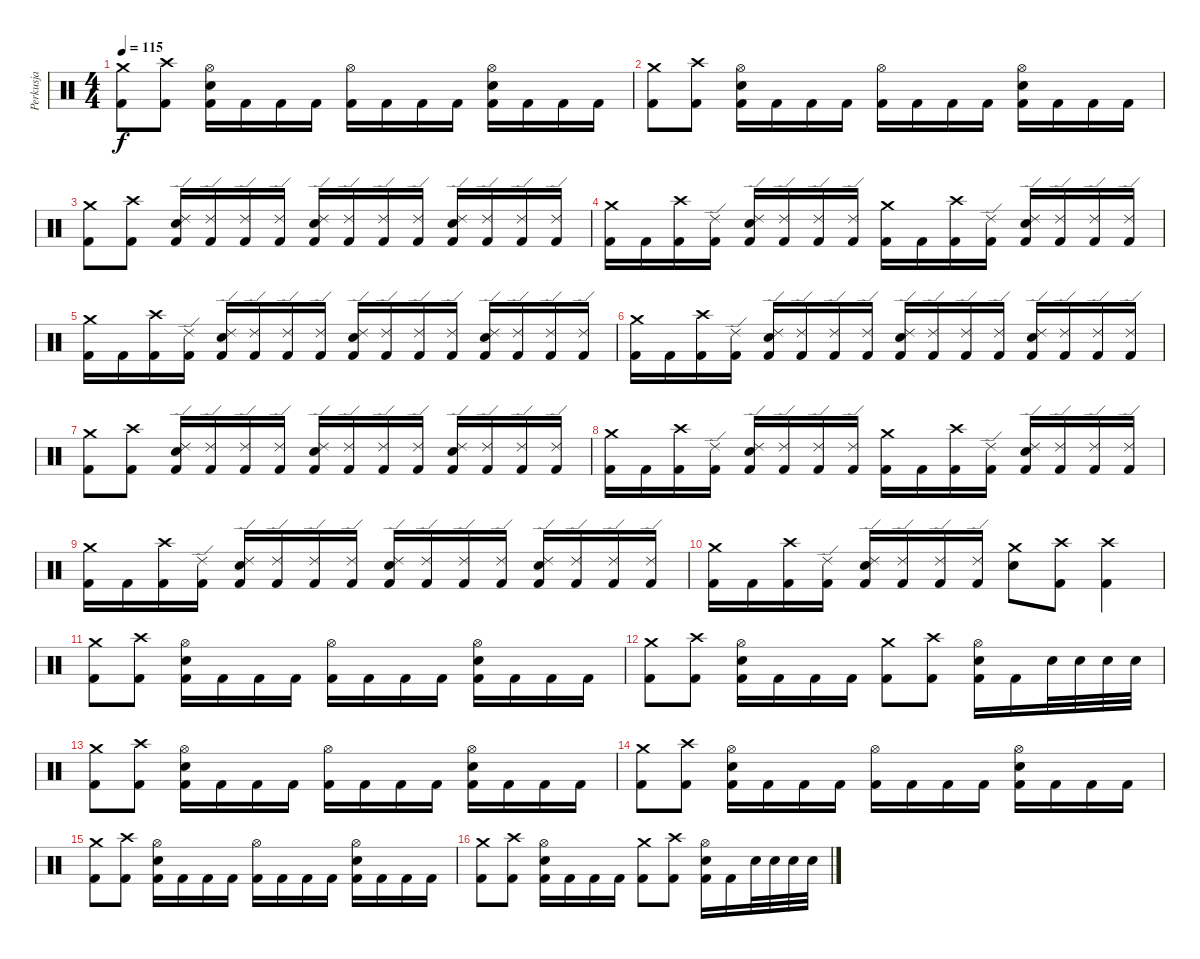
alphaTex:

\track ("Perkusja" "Perkusja") {instrument percussion}
\staff {score}
\articulation defaults
\ts (4 4)
\tempo 115
\clef neutral
\ks c
("Crash medium (hit)" "Kick (hit) 2").8{dy f} ("Crash high (hit)" "Kick (hit) 2").8 ("Kick (hit) 2" "Snare (hit) 2" "Hi-Hat (open)").16 "Kick (hit) 2".16 "Kick (hit) 2".16 "Kick (hit) 2".16 ("Kick (hit) 2" "Hi-Hat (open)").16 "Kick (hit) 2".16 "Kick (hit) 2".16 "Kick (hit) 2".16 ("Kick (hit) 2" "Snare (hit) 2" "Hi-Hat (open)").16 "Kick (hit) 2".16 "Kick (hit) 2".16 "Kick (hit) 2".16 |
("Crash medium (hit)" "Kick (hit) 2").8 ("Crash high (hit)" "Kick (hit) 2").8 ("Kick (hit) 2" "Snare (hit) 2" "Hi-Hat (open)").16 "Kick (hit) 2".16 "Kick (hit) 2".16 "Kick (hit) 2".16 ("Kick (hit) 2" "Hi-Hat (open)").16 "Kick (hit) 2".16 "Kick (hit) 2".16 "Kick (hit) 2".16 ("Kick (hit) 2" "Snare (hit) 2" "Hi-Hat (open)").16 "Kick (hit) 2".16 "Kick (hit) 2".16 "Kick (hit) 2".16 |
("Crash medium (hit)" "Kick (hit) 2").8 ("Crash high (hit)" "Kick (hit) 2").8 ("Kick (hit) 2" "Snare (hit) 2" "Ride (edge) 2").16 ("Kick (hit) 2" "Ride (edge) 2").16 ("Kick (hit) 2" "Ride (edge) 2").16 ("Kick (hit) 2" "Ride (edge) 2").16 ("Kick (hit) 2" "Ride (edge) 2" "Snare (hit) 2").16 ("Kick (hit) 2" "Ride (edge) 2").16 ("Kick (hit) 2" "Ride (edge) 2").16 ("Kick (hit) 2" "Ride (edge) 2").16 ("Kick (hit) 2" "Ride (edge) 2" "Snare (hit) 2").16 ("Kick (hit) 2" "Ride (edge) 2").16 ("Kick (hit) 2" "Ride (edge) 2").16 ("Kick (hit) 2" "Ride (edge) 2").16 |
("Kick (hit) 2" "Crash medium (hit)").16 "Kick (hit) 2".16 ("Kick (hit) 2" "Crash high (hit)").16 ("Kick (hit) 2" "Ride (edge) 2").16 ("Kick (hit) 2" "Snare (hit) 2" "Ride (edge) 2").16 ("Kick (hit) 2" "Ride (edge) 2").16 ("Kick (hit) 2" "Ride (edge) 2").16 ("Kick (hit) 2" "Ride (edge) 2").16 ("Kick (hit) 2" "Crash medium (hit)").16 "Kick (hit) 2".16 ("Kick (hit) 2" "Crash high (hit)").16 ("Kick (hit) 2" "Ride (edge) 2").16 ("Kick (hit) 2" "Ride (edge) 2" "Snare (hit) 2").16 ("Kick (hit) 2" "Ride (edge) 2").16 ("Kick (hit) 2" "Ride (edge) 2").16 ("Kick (hit) 2" "Ride (edge) 2").16 |
("Kick (hit) 2" "Crash medium (hit)").16 "Kick (hit) 2".16 ("Kick (hit) 2" "Crash high (hit)").16 ("Kick (hit) 2" "Ride (edge) 2").16 ("Kick (hit) 2" "Snare (hit) 2" "Ride (edge) 2").16 ("Kick (hit) 2" "Ride (edge) 2").16 ("Kick (hit) 2" "Ride (edge) 2").16 ("Kick (hit) 2" "Ride (edge) 2").16 ("Kick (hit) 2" "Ride (edge) 2" "Snare (hit) 2").16 ("Kick (hit) 2" "Ride (edge) 2").16 ("Kick (hit) 2" "Ride (edge) 2").16 ("Kick (hit) 2" "Ride (edge) 2").16 ("Kick (hit) 2" "Ride (edge) 2" "Snare (hit) 2").16 ("Kick (hit) 2" "Ride (edge) 2").16 ("Kick (hit) 2" "Ride (edge) 2").16 ("Kick (hit) 2" "Ride (edge) 2").16 |
("Kick (hit) 2" "Crash medium (hit)").16 "Kick (hit) 2".16 ("Kick (hit) 2" "Crash high (hit)").16 ("Kick (hit) 2" "Ride (edge) 2").16 ("Kick (hit) 2" "Snare (hit) 2" "Ride (edge) 2").16 ("Kick (hit) 2" "Ride (edge) 2").16 ("Kick (hit) 2" "Ride (edge) 2").16 ("Kick (hit) 2" "Ride (edge) 2").16 ("Kick (hit) 2" "Ride (edge) 2" "Snare (hit) 2").16 ("Kick (hit) 2" "Ride (edge) 2").16 ("Kick (hit) 2" "Ride (edge) 2").16 ("Kick (hit) 2" "Ride (edge) 2").16 ("Kick (hit) 2" "Ride (edge) 2" "Snare (hit) 2").16 ("Kick (hit) 2" "Ride (edge) 2").16 ("Kick (hit) 2" "Ride (edge) 2").16 ("Kick (hit) 2" "Ride (edge) 2").16 |
("Crash medium (hit)" "Kick (hit) 2").8 ("Crash high (hit)" "Kick (hit) 2").8 ("Kick (hit) 2" "Snare (hit) 2" "Ride (edge) 2").16 ("Kick (hit) 2" "Ride (edge) 2").16 ("Kick (hit) 2" "Ride (edge) 2").16 ("Kick (hit) 2" "Ride (edge) 2").16 ("Kick (hit) 2" "Ride (edge) 2" "Snare (hit) 2").16 ("Kick (hit) 2" "Ride (edge) 2").16 ("Kick (hit) 2" "Ride (edge) 2").16 ("Kick (hit) 2" "Ride (edge) 2").16 ("Kick (hit) 2" "Ride (edge) 2" "Snare (hit) 2").16 ("Kick (hit) 2" "Ride (edge) 2").16 ("Kick (hit) 2" "Ride (edge) 2").16 ("Kick (hit) 2" "Ride (edge) 2").16 |
("Kick (hit) 2" "Crash medium (hit)").16 "Kick (hit) 2".16 ("Kick (hit) 2" "Crash high (hit)").16 ("Kick (hit) 2" "Ride (edge) 2").16 ("Kick (hit) 2" "Snare (hit) 2" "Ride (edge) 2").16 ("Kick (hit) 2" "Ride (edge) 2").16 ("Kick (hit) 2" "Ride (edge) 2").16 ("Kick (hit) 2" "Ride (edge) 2").16 ("Kick (hit) 2" "Crash medium (hit)").16 "Kick (hit) 2".16 ("Kick (hit) 2" "Crash high (hit)").16 ("Kick (hit) 2" "Ride (edge) 2").16 ("Kick (hit) 2" "Ride (edge) 2" "Snare (hit) 2").16 ("Kick (hit) 2" "Ride (edge) 2").16 ("Kick (hit) 2" "Ride (edge) 2").16 ("Kick (hit) 2" "Ride (edge) 2").16 |
("Kick (hit) 2" "Crash medium (hit)").16 "Kick (hit) 2".16 ("Kick (hit) 2" "Crash high (hit)").16 ("Kick (hit) 2" "Ride (edge) 2").16 ("Kick (hit) 2" "Snare (hit) 2" "Ride (edge) 2").16 ("Kick (hit) 2" "Ride (edge) 2").16 ("Kick (hit) 2" "Ride (edge) 2").16 ("Kick (hit) 2" "Ride (edge) 2").16 ("Kick (hit) 2" "Ride (edge) 2" "Snare (hit) 2").16 ("Kick (hit) 2" "Ride (edge) 2").16 ("Kick (hit) 2" "Ride (edge) 2").16 ("Kick (hit) 2" "Ride (edge) 2").16 ("Kick (hit) 2" "Ride (edge) 2" "Snare (hit) 2").16 ("Kick (hit) 2" "Ride (edge) 2").16 ("Kick (hit) 2" "Ride (edge) 2").16 ("Kick (hit) 2" "Ride (edge) 2").16 |
("Kick (hit) 2" "Crash medium (hit)").16 "Kick (hit) 2".16 ("Kick (hit) 2" "Crash high (hit)").16 ("Kick (hit) 2" "Ride (edge) 2").16 ("Kick (hit) 2" "Snare (hit) 2" "Ride (edge) 2").16 ("Kick (hit) 2" "Ride (edge) 2").16 ("Kick (hit) 2" "Ride (edge) 2").16 ("Kick (hit) 2" "Ride (edge) 2").16 ("Crash medium (hit)" "Snare (hit) 2").8 ("Kick (hit) 2" "Crash high (hit)").8 ("Kick (hit) 2" "Crash high (hit)").4 |
("Crash medium (hit)" "Kick (hit) 2").8 ("Crash high (hit)" "Kick (hit) 2").8 ("Kick (hit) 2" "Snare (hit) 2" "Hi-Hat (open)").16 "Kick (hit) 2".16 "Kick (hit) 2".16 "Kick (hit) 2".16 ("Kick (hit) 2" "Hi-Hat (open)").16 "Kick (hit) 2".16 "Kick (hit) 2".16 "Kick (hit) 2".16 ("Kick (hit) 2" "Snare (hit) 2" "Hi-Hat (open)").16 "Kick (hit) 2".16 "Kick (hit) 2".16 "Kick (hit) 2".16 |
("Crash medium (hit)" "Kick (hit) 2").8 ("Crash high (hit)" "Kick (hit) 2").8 ("Kick (hit) 2" "Snare (hit) 2" "Hi-Hat (open)").16 "Kick (hit) 2".16 "Kick (hit) 2".16 "Kick (hit) 2".16 ("Crash medium (hit)" "Kick (hit) 2").8 ("Crash high (hit)" "Kick (hit) 2").8 ("Kick (hit) 2" "Snare (hit) 2" "Hi-Hat (open)").16 "Kick (hit) 2".16 "Snare (hit) 2".32 "Snare (hit) 2".32 "Snare (hit) 2".32 "Snare (hit) 2".32 |
("Crash medium (hit)" "Kick (hit) 2").8 ("Crash high (hit)" "Kick (hit) 2").8 ("Kick (hit) 2" "Snare (hit) 2" "Hi-Hat (open)").16 "Kick (hit) 2".16 "Kick (hit) 2".16 "Kick (hit) 2".16 ("Kick (hit) 2" "Hi-Hat (open)").16 "Kick (hit) 2".16 "Kick (hit) 2".16 "Kick (hit) 2".16 ("Kick (hit) 2" "Snare (hit) 2" "Hi-Hat (open)").16 "Kick (hit) 2".16 "Kick (hit) 2".16 "Kick (hit) 2".16 |
("Crash medium (hit)" "Kick (hit) 2").8 ("Crash high (hit)" "Kick (hit) 2").8 ("Kick (hit) 2" "Snare (hit) 2" "Hi-Hat (open)").16 "Kick (hit) 2".16 "Kick (hit) 2".16 "Kick (hit) 2".16 ("Kick (hit) 2" "Hi-Hat (open)").16 "Kick (hit) 2".16 "Kick (hit) 2".16 "Kick (hit) 2".16 ("Kick (hit) 2" "Snare (hit) 2" "Hi-Hat (open)").16 "Kick (hit) 2".16 "Kick (hit) 2".16 "Kick (hit) 2".16 |
("Crash medium (hit)" "Kick (hit) 2").8 ("Crash high (hit)" "Kick (hit) 2").8 ("Kick (hit) 2" "Snare (hit) 2" "Hi-Hat (open)").16 "Kick (hit) 2".16 "Kick (hit) 2".16 "Kick (hit) 2".16 ("Kick (hit) 2" "Hi-Hat (open)").16 "Kick (hit) 2".16 "Kick (hit) 2".16 "Kick (hit) 2".16 ("Kick (hit) 2" "Snare (hit) 2" "Hi-Hat (open)").16 "Kick (hit) 2".16 "Kick (hit) 2".16 "Kick (hit) 2".16 |
("Crash medium (hit)" "Kick (hit) 2").8 ("Crash high (hit)" "Kick (hit) 2").8 ("Kick (hit) 2" "Snare (hit) 2" "Hi-Hat (open)").16 "Kick (hit) 2".16 "Kick (hit) 2".16 "Kick (hit) 2".16 ("Crash medium (hit)" "Kick (hit) 2").8 ("Crash high (hit)" "Kick (hit) 2").8 ("Kick (hit) 2" "Snare (hit) 2" "Hi-Hat (open)").16 "Kick (hit) 2".16 "Snare (hit) 2".32 "Snare (hit) 2".32 "Snare (hit) 2".32 "Snare (hit) 2".32
